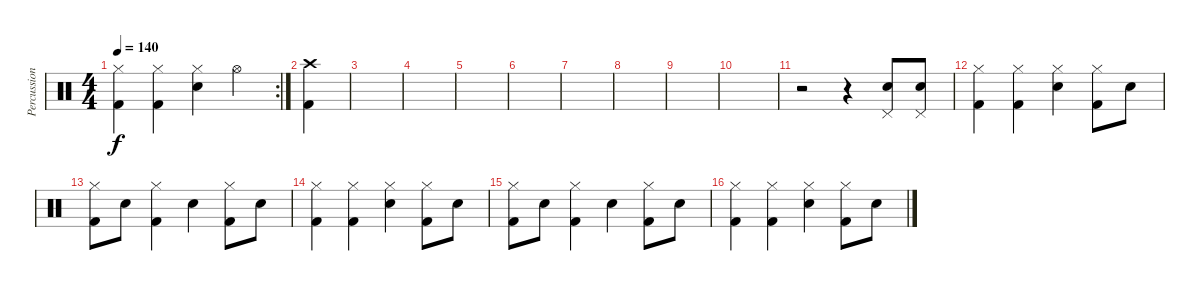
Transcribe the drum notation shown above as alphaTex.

\track ("Percussion" "Percussion") {instrument percussion}
\staff {score}
\articulation defaults
\rc 2
\ts (4 4)
\tempo 140
\clef neutral
\ks c
("Hi-Hat (closed)" "Kick (hit) 2").4{dy f} ("Hi-Hat (closed)" "Kick (hit) 2").4 ("Hi-Hat (closed)" "Electric Snare (hit)").4 "Hi-Hat (open)".4 |
("Crash high (hit)" "Kick (hit) 2").4 |
|
|
|
|
|
|
|
|
r.2 r.4 ("Pedal Hi-Hat (hit)" "Electric Snare (hit)").8 ("Pedal Hi-Hat (hit)" "Electric Snare (hit)").8 |
("Hi-Hat (closed)" "Kick (hit) 2").4 ("Hi-Hat (closed)" "Kick (hit) 2").4 ("Hi-Hat (closed)" "Electric Snare (hit)").4 ("Hi-Hat (closed)" "Kick (hit) 2").8 "Electric Snare (hit)".8 |
("Hi-Hat (closed)" "Kick (hit) 2").8 "Electric Snare (hit)".8 ("Hi-Hat (closed)" "Kick (hit) 2").4 "Electric Snare (hit)".4 ("Hi-Hat (closed)" "Kick (hit) 2").8 "Electric Snare (hit)".8 |
("Hi-Hat (closed)" "Kick (hit) 2").4 ("Hi-Hat (closed)" "Kick (hit) 2").4 ("Hi-Hat (closed)" "Electric Snare (hit)").4 ("Hi-Hat (closed)" "Kick (hit) 2").8 "Electric Snare (hit)".8 |
("Hi-Hat (closed)" "Kick (hit) 2").8 "Electric Snare (hit)".8 ("Hi-Hat (closed)" "Kick (hit) 2").4 "Electric Snare (hit)".4 ("Hi-Hat (closed)" "Kick (hit) 2").8 "Electric Snare (hit)".8 |
("Hi-Hat (closed)" "Kick (hit) 2").4 ("Hi-Hat (closed)" "Kick (hit) 2").4 ("Hi-Hat (closed)" "Electric Snare (hit)").4 ("Hi-Hat (closed)" "Kick (hit) 2").8 "Electric Snare (hit)".8
